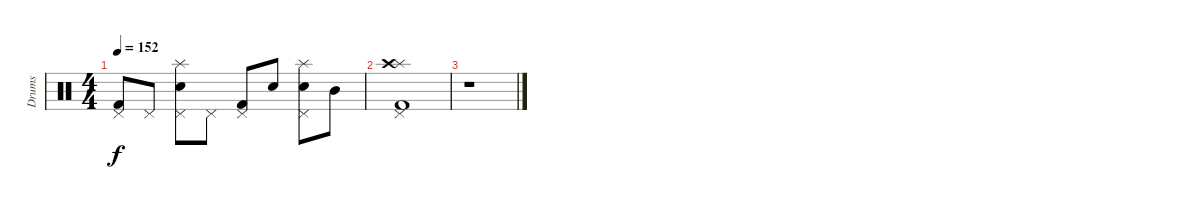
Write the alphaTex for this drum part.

\track ("Drums" "Drums") {instrument percussion}
\staff {score}
\articulation defaults
\ts (4 4)
\tempo 152
\clef neutral
\ks c
("Kick (hit) 2" "Pedal Hi-Hat (hit)").8{dy f} "Pedal Hi-Hat (hit)".8 ("Snare (hit) 2" "Pedal Hi-Hat (hit)" "Splash (hit)").8 "Pedal Hi-Hat (hit)".8 ("Kick (hit) 2" "Pedal Hi-Hat (hit)").8 "Snare (hit) 2".8 ("Snare (hit) 2" "Pedal Hi-Hat (hit)" "Splash (hit)").8 "Mid Tom (hit)".8 |
("Kick (hit) 2" "Pedal Hi-Hat (hit)" "Splash (hit)" "Crash high (hit)").1 |
r.1
